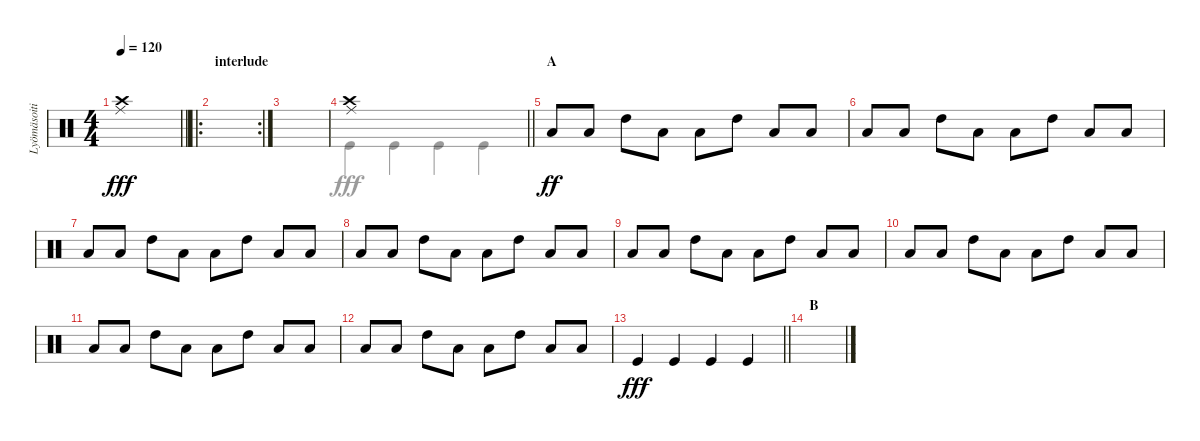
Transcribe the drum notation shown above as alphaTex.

\track ("Lyömäsoitin" "Lyömäsoiti") {instrument percussion}
\staff {score}
\articulation defaults
\voice
\ts (4 4)
\tempo 120
\clef neutral
\barLineRight lightlight
\ks c
("Crash high (hit)" "Ride (middle)").1{dy fff} |
\ro
\rc 2
\section ("" "interlude")
|
|
\barLineRight lightlight
("Crash high (hit)" "Ride (middle)").1 |
\section ("" "A")
"Low Tom (hit)".8{dy ff} "Low Tom (hit)".8 "High Tom (hit)".8 "Low Tom (hit)".8 "Low Tom (hit)".8 "High Tom (hit)".8 "Low Tom (hit)".8 "Low Tom (hit)".8 |
"Low Tom (hit)".8 "Low Tom (hit)".8 "High Tom (hit)".8 "Low Tom (hit)".8 "Low Tom (hit)".8 "High Tom (hit)".8 "Low Tom (hit)".8 "Low Tom (hit)".8 |
"Low Tom (hit)".8 "Low Tom (hit)".8 "High Tom (hit)".8 "Low Tom (hit)".8 "Low Tom (hit)".8 "High Tom (hit)".8 "Low Tom (hit)".8 "Low Tom (hit)".8 |
"Low Tom (hit)".8 "Low Tom (hit)".8 "High Tom (hit)".8 "Low Tom (hit)".8 "Low Tom (hit)".8 "High Tom (hit)".8 "Low Tom (hit)".8 "Low Tom (hit)".8 |
"Low Tom (hit)".8 "Low Tom (hit)".8 "High Tom (hit)".8 "Low Tom (hit)".8 "Low Tom (hit)".8 "High Tom (hit)".8 "Low Tom (hit)".8 "Low Tom (hit)".8 |
"Low Tom (hit)".8 "Low Tom (hit)".8 "High Tom (hit)".8 "Low Tom (hit)".8 "Low Tom (hit)".8 "High Tom (hit)".8 "Low Tom (hit)".8 "Low Tom (hit)".8 |
"Low Tom (hit)".8 "Low Tom (hit)".8 "High Tom (hit)".8 "Low Tom (hit)".8 "Low Tom (hit)".8 "High Tom (hit)".8 "Low Tom (hit)".8 "Low Tom (hit)".8 |
"Low Tom (hit)".8 "Low Tom (hit)".8 "High Tom (hit)".8 "Low Tom (hit)".8 "Low Tom (hit)".8 "High Tom (hit)".8 "Low Tom (hit)".8 "Low Tom (hit)".8 |
\barLineRight lightlight "Kick (hit)".4{dy fff} "Kick (hit)".4 "Kick (hit)".4 "Kick (hit)".4
|
\section ("" "B")
|
|
\voice
\clef neutral
\ottava regular
\simile none
\barLineRight lightlight
\ks c
|
|
|
\barLineRight lightlight "Kick (hit)".4 "Kick (hit)".4 "Kick (hit)".4 "Kick (hit)".4
|
|
|
|
|
|
|
|
|
\barLineRight lightlight
|
|
|
